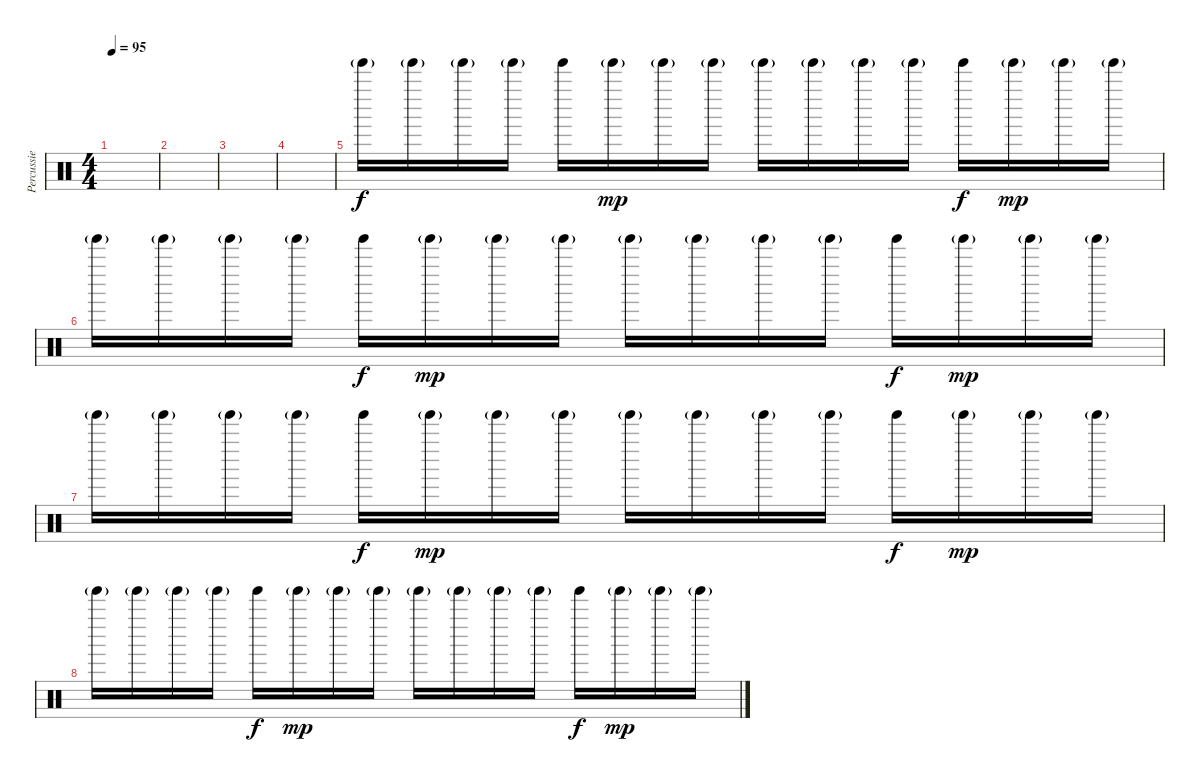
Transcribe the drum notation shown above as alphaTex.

\track ("Percussie" "Percussie") {instrument percussion}
\staff {score}
\articulation defaults
\ts (4 4)
\tempo 95
\clef neutral
\ks c
|
|
|
|
"Tinkle Bell (hit)"{g}.16 "Tinkle Bell (hit)"{g}.16 "Tinkle Bell (hit)"{g}.16 "Tinkle Bell (hit)"{g}.16 "Tinkle Bell (hit)".16{dy f} "Tinkle Bell (hit)"{g}.16{dy mp} "Tinkle Bell (hit)"{g}.16 "Tinkle Bell (hit)"{g}.16 "Tinkle Bell (hit)"{g}.16 "Tinkle Bell (hit)"{g}.16 "Tinkle Bell (hit)"{g}.16 "Tinkle Bell (hit)"{g}.16 "Tinkle Bell (hit)".16{dy f} "Tinkle Bell (hit)"{g}.16{dy mp} "Tinkle Bell (hit)"{g}.16 "Tinkle Bell (hit)"{g}.16 |
"Tinkle Bell (hit)"{g}.16 "Tinkle Bell (hit)"{g}.16 "Tinkle Bell (hit)"{g}.16 "Tinkle Bell (hit)"{g}.16 "Tinkle Bell (hit)".16{dy f} "Tinkle Bell (hit)"{g}.16{dy mp} "Tinkle Bell (hit)"{g}.16 "Tinkle Bell (hit)"{g}.16 "Tinkle Bell (hit)"{g}.16 "Tinkle Bell (hit)"{g}.16 "Tinkle Bell (hit)"{g}.16 "Tinkle Bell (hit)"{g}.16 "Tinkle Bell (hit)".16{dy f} "Tinkle Bell (hit)"{g}.16{dy mp} "Tinkle Bell (hit)"{g}.16 "Tinkle Bell (hit)"{g}.16 |
"Tinkle Bell (hit)"{g}.16 "Tinkle Bell (hit)"{g}.16 "Tinkle Bell (hit)"{g}.16 "Tinkle Bell (hit)"{g}.16 "Tinkle Bell (hit)".16{dy f} "Tinkle Bell (hit)"{g}.16{dy mp} "Tinkle Bell (hit)"{g}.16 "Tinkle Bell (hit)"{g}.16 "Tinkle Bell (hit)"{g}.16 "Tinkle Bell (hit)"{g}.16 "Tinkle Bell (hit)"{g}.16 "Tinkle Bell (hit)"{g}.16 "Tinkle Bell (hit)".16{dy f} "Tinkle Bell (hit)"{g}.16{dy mp} "Tinkle Bell (hit)"{g}.16 "Tinkle Bell (hit)"{g}.16 |
"Tinkle Bell (hit)"{g}.16 "Tinkle Bell (hit)"{g}.16 "Tinkle Bell (hit)"{g}.16 "Tinkle Bell (hit)"{g}.16 "Tinkle Bell (hit)".16{dy f} "Tinkle Bell (hit)"{g}.16{dy mp} "Tinkle Bell (hit)"{g}.16 "Tinkle Bell (hit)"{g}.16 "Tinkle Bell (hit)"{g}.16 "Tinkle Bell (hit)"{g}.16 "Tinkle Bell (hit)"{g}.16 "Tinkle Bell (hit)"{g}.16 "Tinkle Bell (hit)".16{dy f} "Tinkle Bell (hit)"{g}.16{dy mp} "Tinkle Bell (hit)"{g}.16 "Tinkle Bell (hit)"{g}.16
